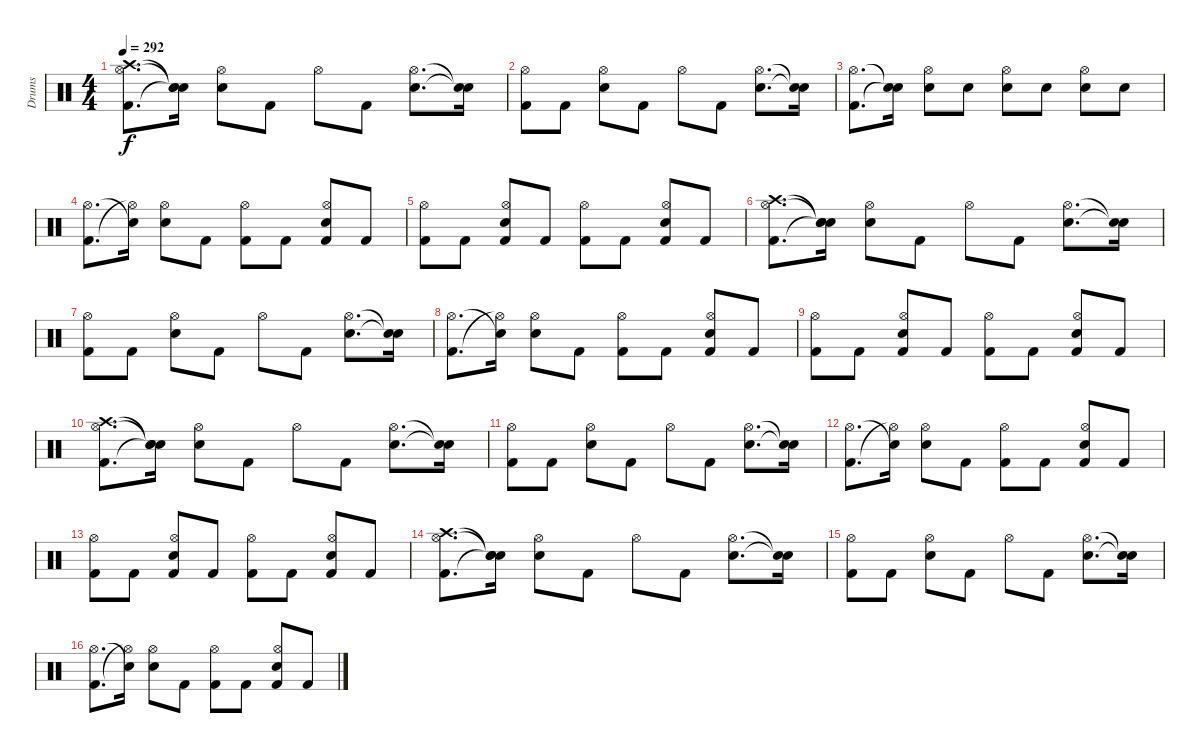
\track ("Drums" "Drums") {instrument percussion}
\staff {score}
\articulation defaults
\ts (4 4)
\tempo 292
\clef neutral
\ks c
("Kick (hit) 2" "Hi-Hat (open)" "Crash high (hit)").8{d dy f} ("Snare (hit)"{t} "Snare (hit)"{t} "Snare (hit)"{t}).16 ("Snare (hit) 2" "Hi-Hat (open)").8 "Kick (hit) 2".8 "Hi-Hat (open)".8 "Kick (hit) 2".8 ("Snare (hit) 2" "Hi-Hat (open)").8{d} ("Snare (hit)"{t} "Snare (hit)"{t}).16 |
("Kick (hit) 2" "Hi-Hat (open)").8 "Kick (hit) 2".8 ("Snare (hit) 2" "Hi-Hat (open)").8 "Kick (hit) 2".8 "Hi-Hat (open)".8 "Kick (hit) 2".8 ("Snare (hit) 2" "Hi-Hat (open)").8{d} ("Snare (hit)"{t} "Snare (hit)"{t}).16 |
("Kick (hit) 2" "Hi-Hat (open)").8{d} ("Snare (hit)"{t} "Snare (hit)"{t}).16 ("Snare (hit) 2" "Hi-Hat (open)").8 "Snare (hit) 2".8 ("Snare (hit) 2" "Hi-Hat (open)").8 "Snare (hit) 2".8 ("Snare (hit) 2" "Hi-Hat (open)").8 "Snare (hit) 2".8 |
("Kick (hit) 2" "Hi-Hat (open)").8{d} ("Hi-Hat (open)"{t} "Snare (hit)"{t}).16 ("Snare (hit) 2" "Hi-Hat (open)").8 "Kick (hit) 2".8 ("Kick (hit) 2" "Hi-Hat (open)").8 "Kick (hit) 2".8 ("Kick (hit) 2" "Snare (hit) 2" "Hi-Hat (open)").8 "Kick (hit) 2".8 |
("Kick (hit) 2" "Hi-Hat (open)").8 "Kick (hit) 2".8 ("Kick (hit) 2" "Snare (hit) 2" "Hi-Hat (open)").8 "Kick (hit) 2".8 ("Kick (hit) 2" "Hi-Hat (open)").8 "Kick (hit) 2".8 ("Kick (hit) 2" "Snare (hit) 2" "Hi-Hat (open)").8 "Kick (hit) 2".8 |
("Kick (hit) 2" "Hi-Hat (open)" "Crash high (hit)").8{d} ("Snare (hit)"{t} "Snare (hit)"{t} "Snare (hit)"{t}).16 ("Snare (hit) 2" "Hi-Hat (open)").8 "Kick (hit) 2".8 "Hi-Hat (open)".8 "Kick (hit) 2".8 ("Snare (hit) 2" "Hi-Hat (open)").8{d} ("Snare (hit)"{t} "Snare (hit)"{t}).16 |
("Kick (hit) 2" "Hi-Hat (open)").8 "Kick (hit) 2".8 ("Snare (hit) 2" "Hi-Hat (open)").8 "Kick (hit) 2".8 "Hi-Hat (open)".8 "Kick (hit) 2".8 ("Snare (hit) 2" "Hi-Hat (open)").8{d} ("Snare (hit)"{t} "Snare (hit)"{t}).16 |
("Kick (hit) 2" "Hi-Hat (open)").8{d} ("Hi-Hat (open)"{t} "Snare (hit)"{t}).16 ("Snare (hit) 2" "Hi-Hat (open)").8 "Kick (hit) 2".8 ("Kick (hit) 2" "Hi-Hat (open)").8 "Kick (hit) 2".8 ("Kick (hit) 2" "Snare (hit) 2" "Hi-Hat (open)").8 "Kick (hit) 2".8 |
("Kick (hit) 2" "Hi-Hat (open)").8 "Kick (hit) 2".8 ("Kick (hit) 2" "Snare (hit) 2" "Hi-Hat (open)").8 "Kick (hit) 2".8 ("Kick (hit) 2" "Hi-Hat (open)").8 "Kick (hit) 2".8 ("Kick (hit) 2" "Snare (hit) 2" "Hi-Hat (open)").8 "Kick (hit) 2".8 |
("Kick (hit) 2" "Hi-Hat (open)" "Crash high (hit)").8{d} ("Snare (hit)"{t} "Snare (hit)"{t} "Snare (hit)"{t}).16 ("Snare (hit) 2" "Hi-Hat (open)").8 "Kick (hit) 2".8 "Hi-Hat (open)".8 "Kick (hit) 2".8 ("Snare (hit) 2" "Hi-Hat (open)").8{d} ("Snare (hit)"{t} "Snare (hit)"{t}).16 |
("Kick (hit) 2" "Hi-Hat (open)").8 "Kick (hit) 2".8 ("Snare (hit) 2" "Hi-Hat (open)").8 "Kick (hit) 2".8 "Hi-Hat (open)".8 "Kick (hit) 2".8 ("Snare (hit) 2" "Hi-Hat (open)").8{d} ("Snare (hit)"{t} "Snare (hit)"{t}).16 |
("Kick (hit) 2" "Hi-Hat (open)").8{d} ("Hi-Hat (open)"{t} "Snare (hit)"{t}).16 ("Snare (hit) 2" "Hi-Hat (open)").8 "Kick (hit) 2".8 ("Kick (hit) 2" "Hi-Hat (open)").8 "Kick (hit) 2".8 ("Kick (hit) 2" "Snare (hit) 2" "Hi-Hat (open)").8 "Kick (hit) 2".8 |
("Kick (hit) 2" "Hi-Hat (open)").8 "Kick (hit) 2".8 ("Kick (hit) 2" "Snare (hit) 2" "Hi-Hat (open)").8 "Kick (hit) 2".8 ("Kick (hit) 2" "Hi-Hat (open)").8 "Kick (hit) 2".8 ("Kick (hit) 2" "Snare (hit) 2" "Hi-Hat (open)").8 "Kick (hit) 2".8 |
("Kick (hit) 2" "Hi-Hat (open)" "Crash high (hit)").8{d} ("Snare (hit)"{t} "Snare (hit)"{t} "Snare (hit)"{t}).16 ("Snare (hit) 2" "Hi-Hat (open)").8 "Kick (hit) 2".8 "Hi-Hat (open)".8 "Kick (hit) 2".8 ("Snare (hit) 2" "Hi-Hat (open)").8{d} ("Snare (hit)"{t} "Snare (hit)"{t}).16 |
("Kick (hit) 2" "Hi-Hat (open)").8 "Kick (hit) 2".8 ("Snare (hit) 2" "Hi-Hat (open)").8 "Kick (hit) 2".8 "Hi-Hat (open)".8 "Kick (hit) 2".8 ("Snare (hit) 2" "Hi-Hat (open)").8{d} ("Snare (hit)"{t} "Snare (hit)"{t}).16 |
("Kick (hit) 2" "Hi-Hat (open)").8{d} ("Hi-Hat (open)"{t} "Snare (hit)"{t}).16 ("Snare (hit) 2" "Hi-Hat (open)").8 "Kick (hit) 2".8 ("Kick (hit) 2" "Hi-Hat (open)").8 "Kick (hit) 2".8 ("Kick (hit) 2" "Snare (hit) 2" "Hi-Hat (open)").8 "Kick (hit) 2".8
